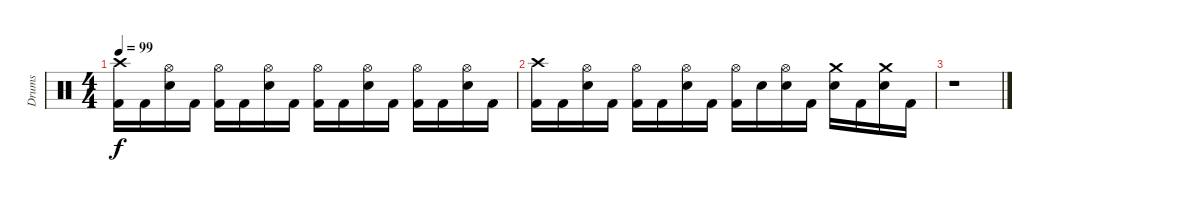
\track ("Drums" "Drums") {instrument percussion}
\staff {score}
\articulation defaults
\ts (4 4)
\tempo 99
\clef neutral
\ks c
("Kick (hit) 2" "Crash high (hit)").16{dy f volume 0} "Kick (hit) 2".16 ("Electric Snare (hit)" "Hi-Hat (open)").16 "Kick (hit) 2".16 ("Kick (hit) 2" "Hi-Hat (open)").16 "Kick (hit) 2".16 ("Electric Snare (hit)" "Hi-Hat (open)").16 "Kick (hit) 2".16 ("Kick (hit) 2" "Hi-Hat (open)").16 "Kick (hit) 2".16 ("Electric Snare (hit)" "Hi-Hat (open)").16 "Kick (hit) 2".16 ("Kick (hit) 2" "Hi-Hat (open)").16 "Kick (hit) 2".16 ("Electric Snare (hit)" "Hi-Hat (open)").16 "Kick (hit) 2".16 |
("Kick (hit) 2" "Crash high (hit)").16 "Kick (hit) 2".16 ("Electric Snare (hit)" "Hi-Hat (open)").16 "Kick (hit) 2".16 ("Kick (hit) 2" "Hi-Hat (open)").16 "Kick (hit) 2".16 ("Electric Snare (hit)" "Hi-Hat (open)").16 "Kick (hit) 2".16 ("Kick (hit) 2" "Hi-Hat (open)").16 "Electric Snare (hit)".16 ("Electric Snare (hit)" "Hi-Hat (open)").16 "Kick (hit) 2".16 ("Electric Snare (hit)" "Crash medium (hit)").16 "Kick (hit) 2".16 ("Electric Snare (hit)" "Crash medium (hit)").16 "Kick (hit) 2".16 |
r.1
